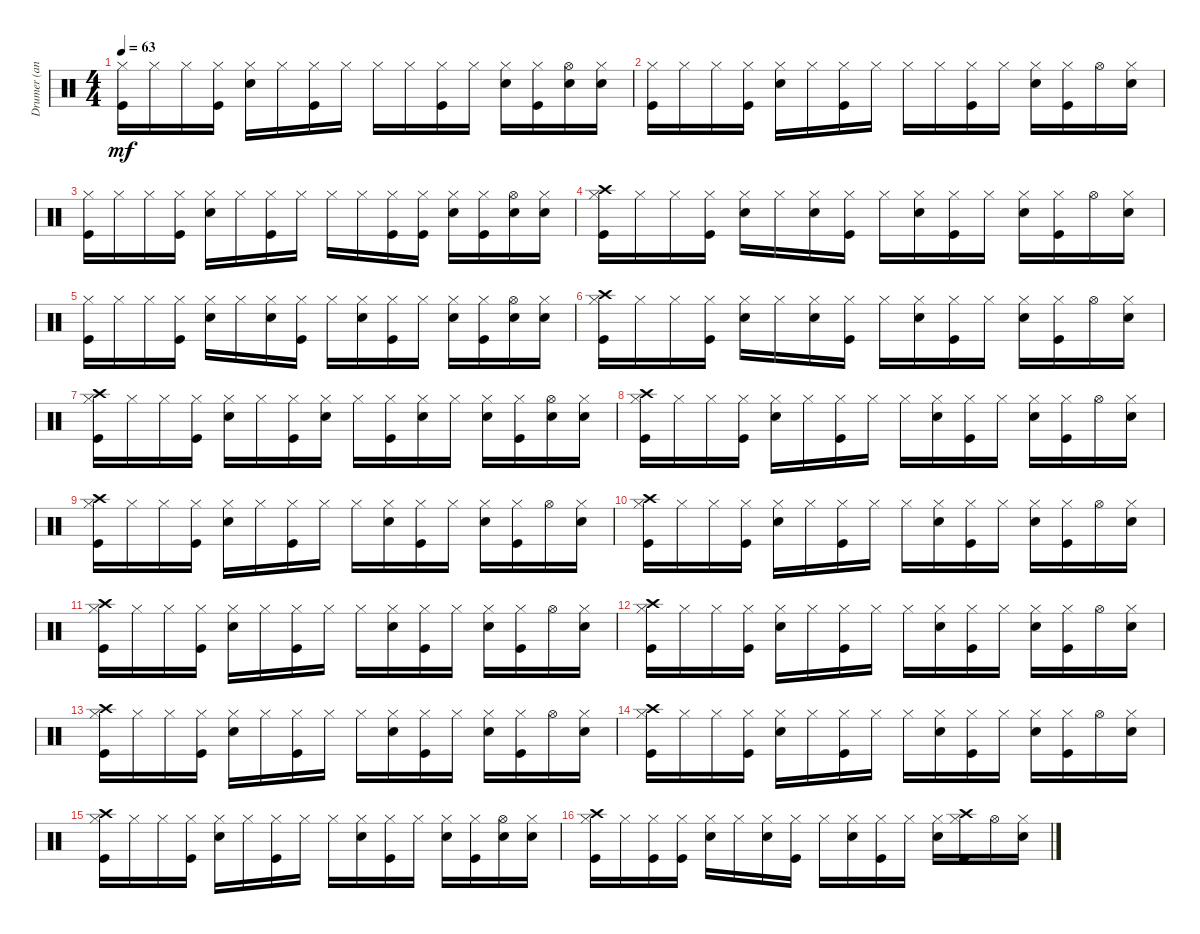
\track ("Drumer (ananbakeri.blogspot.com)" "Drumer (an") {instrument percussion}
\staff {score}
\articulation defaults
\ts (4 4)
\tempo 63
\clef neutral
\ks c
("Hi-Hat (closed)" "Kick (hit)").16{dy mf} "Hi-Hat (closed)".16 "Hi-Hat (closed)".16 ("Hi-Hat (closed)" "Kick (hit)").16 ("Hi-Hat (closed)" "Snare (hit) 2").16 "Hi-Hat (closed)".16 ("Hi-Hat (closed)" "Kick (hit)").16 "Hi-Hat (closed)".16 "Hi-Hat (closed)".16 "Hi-Hat (closed)".16 ("Hi-Hat (closed)" "Kick (hit)").16 "Hi-Hat (closed)".16 ("Hi-Hat (closed)" "Snare (hit) 2").16 ("Hi-Hat (closed)" "Kick (hit)").16 ("Hi-Hat (open)" "Snare (hit) 2").16 ("Hi-Hat (closed)" "Snare (hit) 2").16 |
("Hi-Hat (closed)" "Kick (hit)").16 "Hi-Hat (closed)".16 "Hi-Hat (closed)".16 ("Hi-Hat (closed)" "Kick (hit)").16 ("Hi-Hat (closed)" "Snare (hit) 2").16 "Hi-Hat (closed)".16 ("Hi-Hat (closed)" "Kick (hit)").16 "Hi-Hat (closed)".16 "Hi-Hat (closed)".16 "Hi-Hat (closed)".16 ("Hi-Hat (closed)" "Kick (hit)").16 "Hi-Hat (closed)".16 ("Hi-Hat (closed)" "Snare (hit) 2").16 ("Hi-Hat (closed)" "Kick (hit)").16 "Hi-Hat (open)".16 ("Hi-Hat (closed)" "Snare (hit) 2").16 |
("Hi-Hat (closed)" "Kick (hit)").16 "Hi-Hat (closed)".16 "Hi-Hat (closed)".16 ("Hi-Hat (closed)" "Kick (hit)").16 ("Hi-Hat (closed)" "Snare (hit) 2").16 "Hi-Hat (closed)".16 ("Hi-Hat (closed)" "Kick (hit)").16 "Hi-Hat (closed)".16 "Hi-Hat (closed)".16 "Hi-Hat (closed)".16 ("Hi-Hat (closed)" "Kick (hit)").16 ("Hi-Hat (closed)" "Kick (hit)").16 ("Hi-Hat (closed)" "Snare (hit) 2").16 ("Hi-Hat (closed)" "Kick (hit)").16 ("Hi-Hat (open)" "Snare (hit) 2").16 ("Hi-Hat (closed)" "Snare (hit) 2").16 |
("Kick (hit)" "Hi-Hat (closed)" "Crash high (hit)").16 "Hi-Hat (closed)".16 "Hi-Hat (closed)".16 ("Hi-Hat (closed)" "Kick (hit)").16 ("Hi-Hat (closed)" "Snare (hit) 2").16 "Hi-Hat (closed)".16 ("Hi-Hat (closed)" "Snare (hit) 2").16 ("Hi-Hat (closed)" "Kick (hit)").16 "Hi-Hat (closed)".16 ("Hi-Hat (closed)" "Snare (hit) 2").16 ("Hi-Hat (closed)" "Kick (hit)").16 "Hi-Hat (closed)".16 ("Hi-Hat (closed)" "Snare (hit) 2").16 ("Hi-Hat (closed)" "Kick (hit)").16 "Hi-Hat (open)".16 ("Hi-Hat (closed)" "Snare (hit) 2").16 |
("Hi-Hat (closed)" "Kick (hit)").16 "Hi-Hat (closed)".16 "Hi-Hat (closed)".16 ("Hi-Hat (closed)" "Kick (hit)").16 ("Hi-Hat (closed)" "Snare (hit) 2").16 "Hi-Hat (closed)".16 ("Hi-Hat (closed)" "Snare (hit) 2").16 ("Hi-Hat (closed)" "Kick (hit)").16 "Hi-Hat (closed)".16 ("Hi-Hat (closed)" "Snare (hit) 2").16 ("Hi-Hat (closed)" "Kick (hit)").16 "Hi-Hat (closed)".16 ("Hi-Hat (closed)" "Snare (hit) 2").16 ("Hi-Hat (closed)" "Kick (hit)").16 ("Hi-Hat (open)" "Snare (hit) 2").16 ("Hi-Hat (closed)" "Snare (hit) 2").16 |
("Hi-Hat (closed)" "Kick (hit)" "Crash high (hit)").16 "Hi-Hat (closed)".16 "Hi-Hat (closed)".16 ("Hi-Hat (closed)" "Kick (hit)").16 ("Hi-Hat (closed)" "Snare (hit) 2").16 "Hi-Hat (closed)".16 ("Hi-Hat (closed)" "Snare (hit) 2").16 ("Hi-Hat (closed)" "Kick (hit)").16 "Hi-Hat (closed)".16 ("Hi-Hat (closed)" "Snare (hit) 2").16 ("Hi-Hat (closed)" "Kick (hit)").16 "Hi-Hat (closed)".16 ("Hi-Hat (closed)" "Snare (hit) 2").16 ("Hi-Hat (closed)" "Kick (hit)").16 "Hi-Hat (open)".16 ("Hi-Hat (closed)" "Snare (hit) 2").16 |
("Hi-Hat (closed)" "Kick (hit)" "Crash high (hit)").16 "Hi-Hat (closed)".16 "Hi-Hat (closed)".16 ("Hi-Hat (closed)" "Kick (hit)").16 ("Hi-Hat (closed)" "Snare (hit) 2").16 "Hi-Hat (closed)".16 ("Hi-Hat (closed)" "Kick (hit)").16 ("Hi-Hat (closed)" "Snare (hit) 2").16 "Hi-Hat (closed)".16 ("Hi-Hat (closed)" "Kick (hit)").16 ("Hi-Hat (closed)" "Snare (hit) 2").16 "Hi-Hat (closed)".16 ("Hi-Hat (closed)" "Snare (hit) 2").16 ("Hi-Hat (closed)" "Kick (hit)").16 ("Hi-Hat (open)" "Snare (hit) 2").16 ("Hi-Hat (closed)" "Snare (hit) 2").16 |
("Hi-Hat (closed)" "Crash high (hit)" "Kick (hit)").16 "Hi-Hat (closed)".16 "Hi-Hat (closed)".16 ("Hi-Hat (closed)" "Kick (hit)").16 ("Hi-Hat (closed)" "Snare (hit) 2").16 "Hi-Hat (closed)".16 ("Hi-Hat (closed)" "Kick (hit)").16 "Hi-Hat (closed)".16 "Hi-Hat (closed)".16 ("Hi-Hat (closed)" "Snare (hit) 2").16 ("Hi-Hat (closed)" "Kick (hit)").16 "Hi-Hat (closed)".16 ("Hi-Hat (closed)" "Snare (hit) 2").16 ("Hi-Hat (closed)" "Kick (hit)").16 "Hi-Hat (open)".16 ("Hi-Hat (closed)" "Snare (hit) 2").16 |
("Hi-Hat (closed)" "Kick (hit)" "Crash high (hit)").16 "Hi-Hat (closed)".16 "Hi-Hat (closed)".16 ("Hi-Hat (closed)" "Kick (hit)").16 ("Hi-Hat (closed)" "Snare (hit) 2").16 "Hi-Hat (closed)".16 ("Hi-Hat (closed)" "Kick (hit)").16 "Hi-Hat (closed)".16 "Hi-Hat (closed)".16 ("Hi-Hat (closed)" "Snare (hit) 2").16 ("Hi-Hat (closed)" "Kick (hit)").16 "Hi-Hat (closed)".16 ("Hi-Hat (closed)" "Snare (hit) 2").16 ("Hi-Hat (closed)" "Kick (hit)").16 "Hi-Hat (open)".16 ("Hi-Hat (closed)" "Snare (hit) 2").16 |
("Hi-Hat (closed)" "Kick (hit)" "Crash high (hit)").16 "Hi-Hat (closed)".16 "Hi-Hat (closed)".16 ("Hi-Hat (closed)" "Kick (hit)").16 ("Hi-Hat (closed)" "Snare (hit) 2").16 "Hi-Hat (closed)".16 ("Hi-Hat (closed)" "Kick (hit)").16 "Hi-Hat (closed)".16 "Hi-Hat (closed)".16 ("Hi-Hat (closed)" "Snare (hit) 2").16 ("Hi-Hat (closed)" "Kick (hit)").16 "Hi-Hat (closed)".16 ("Hi-Hat (closed)" "Snare (hit) 2").16 ("Hi-Hat (closed)" "Kick (hit)").16 "Hi-Hat (open)".16 ("Hi-Hat (closed)" "Snare (hit) 2").16 |
("Hi-Hat (closed)" "Kick (hit)" "Crash high (hit)").16 "Hi-Hat (closed)".16 "Hi-Hat (closed)".16 ("Hi-Hat (closed)" "Kick (hit)").16 ("Hi-Hat (closed)" "Snare (hit) 2").16 "Hi-Hat (closed)".16 ("Hi-Hat (closed)" "Kick (hit)").16 "Hi-Hat (closed)".16 "Hi-Hat (closed)".16 ("Hi-Hat (closed)" "Snare (hit) 2").16 ("Hi-Hat (closed)" "Kick (hit)").16 "Hi-Hat (closed)".16 ("Hi-Hat (closed)" "Snare (hit) 2").16 ("Hi-Hat (closed)" "Kick (hit)").16 "Hi-Hat (open)".16 ("Hi-Hat (closed)" "Snare (hit) 2").16 |
("Hi-Hat (closed)" "Kick (hit)" "Crash high (hit)").16 "Hi-Hat (closed)".16 "Hi-Hat (closed)".16 ("Hi-Hat (closed)" "Kick (hit)").16 ("Hi-Hat (closed)" "Snare (hit) 2").16 "Hi-Hat (closed)".16 ("Hi-Hat (closed)" "Kick (hit)").16 "Hi-Hat (closed)".16 "Hi-Hat (closed)".16 ("Hi-Hat (closed)" "Snare (hit) 2").16 ("Hi-Hat (closed)" "Kick (hit)").16 "Hi-Hat (closed)".16 ("Hi-Hat (closed)" "Snare (hit) 2").16 ("Hi-Hat (closed)" "Kick (hit)").16 "Hi-Hat (open)".16 ("Hi-Hat (closed)" "Snare (hit) 2").16 |
("Hi-Hat (closed)" "Kick (hit)" "Crash high (hit)").16 "Hi-Hat (closed)".16 "Hi-Hat (closed)".16 ("Hi-Hat (closed)" "Kick (hit)").16 ("Hi-Hat (closed)" "Snare (hit) 2").16 "Hi-Hat (closed)".16 ("Hi-Hat (closed)" "Kick (hit)").16 "Hi-Hat (closed)".16 "Hi-Hat (closed)".16 ("Hi-Hat (closed)" "Snare (hit) 2").16 ("Hi-Hat (closed)" "Kick (hit)").16 "Hi-Hat (closed)".16 ("Hi-Hat (closed)" "Snare (hit) 2").16 ("Hi-Hat (closed)" "Kick (hit)").16 "Hi-Hat (open)".16 ("Hi-Hat (closed)" "Snare (hit) 2").16 |
("Hi-Hat (closed)" "Kick (hit)" "Crash high (hit)").16 "Hi-Hat (closed)".16 "Hi-Hat (closed)".16 ("Hi-Hat (closed)" "Kick (hit)").16 ("Hi-Hat (closed)" "Snare (hit) 2").16 "Hi-Hat (closed)".16 ("Hi-Hat (closed)" "Kick (hit)").16 "Hi-Hat (closed)".16 "Hi-Hat (closed)".16 ("Hi-Hat (closed)" "Snare (hit) 2").16 ("Hi-Hat (closed)" "Kick (hit)").16 "Hi-Hat (closed)".16 ("Hi-Hat (closed)" "Snare (hit) 2").16 ("Hi-Hat (closed)" "Kick (hit)").16 "Hi-Hat (open)".16 ("Hi-Hat (closed)" "Snare (hit) 2").16 |
("Hi-Hat (closed)" "Kick (hit)" "Crash high (hit)").16 "Hi-Hat (closed)".16 "Hi-Hat (closed)".16 ("Hi-Hat (closed)" "Kick (hit)").16 ("Hi-Hat (closed)" "Snare (hit) 2").16 "Hi-Hat (closed)".16 ("Hi-Hat (closed)" "Kick (hit)").16 "Hi-Hat (closed)".16 "Hi-Hat (closed)".16 ("Hi-Hat (closed)" "Snare (hit) 2").16 ("Hi-Hat (closed)" "Kick (hit)").16 "Hi-Hat (closed)".16 ("Hi-Hat (closed)" "Snare (hit) 2").16 ("Hi-Hat (closed)" "Kick (hit)").16 ("Hi-Hat (open)" "Snare (hit) 2").16 ("Hi-Hat (closed)" "Snare (hit) 2").16 |
("Crash high (hit)" "Hi-Hat (closed)" "Kick (hit)").16 "Hi-Hat (closed)".16 ("Hi-Hat (closed)" "Kick (hit)").16 ("Hi-Hat (closed)" "Kick (hit)").16 ("Hi-Hat (closed)" "Snare (hit) 2").16 "Hi-Hat (closed)".16 ("Hi-Hat (closed)" "Snare (hit) 2").16 ("Hi-Hat (closed)" "Kick (hit)").16 "Hi-Hat (closed)".16 ("Hi-Hat (closed)" "Snare (hit) 2").16 ("Hi-Hat (closed)" "Kick (hit)").16 "Hi-Hat (closed)".16 ("Hi-Hat (closed)" "Snare (hit) 2").16 ("Hi-Hat (closed)" "Kick (hit)" "Crash high (hit)").16 "Hi-Hat (open)".16 ("Hi-Hat (closed)" "Snare (hit) 2").16
